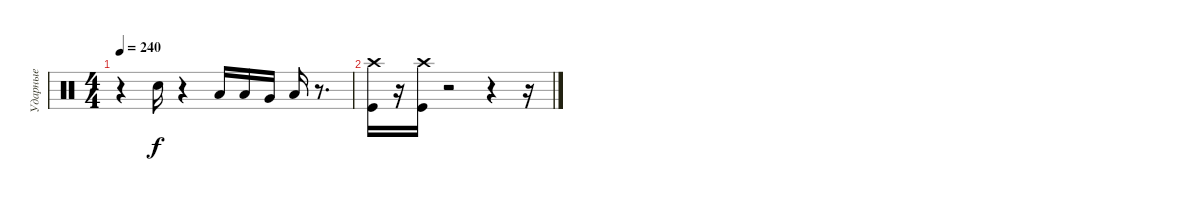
\track ("Ударные" "Ударные") {instrument percussion}
\staff {score}
\articulation defaults
\ts (4 4)
\tempo 240
\clef neutral
\ks c
r.4{dy f} "Snare (hit) 2".16 r.4 "Low Tom (hit)".16 "Low Tom (hit)".16 "Very Low Tom (hit)".16 "Low Floor Tom (hit)".16 r.8{d} |
("Crash high (hit)" "Kick (hit)").16 r.16 ("Crash high (hit)" "Kick (hit)").16 r.2 r.4 r.16
